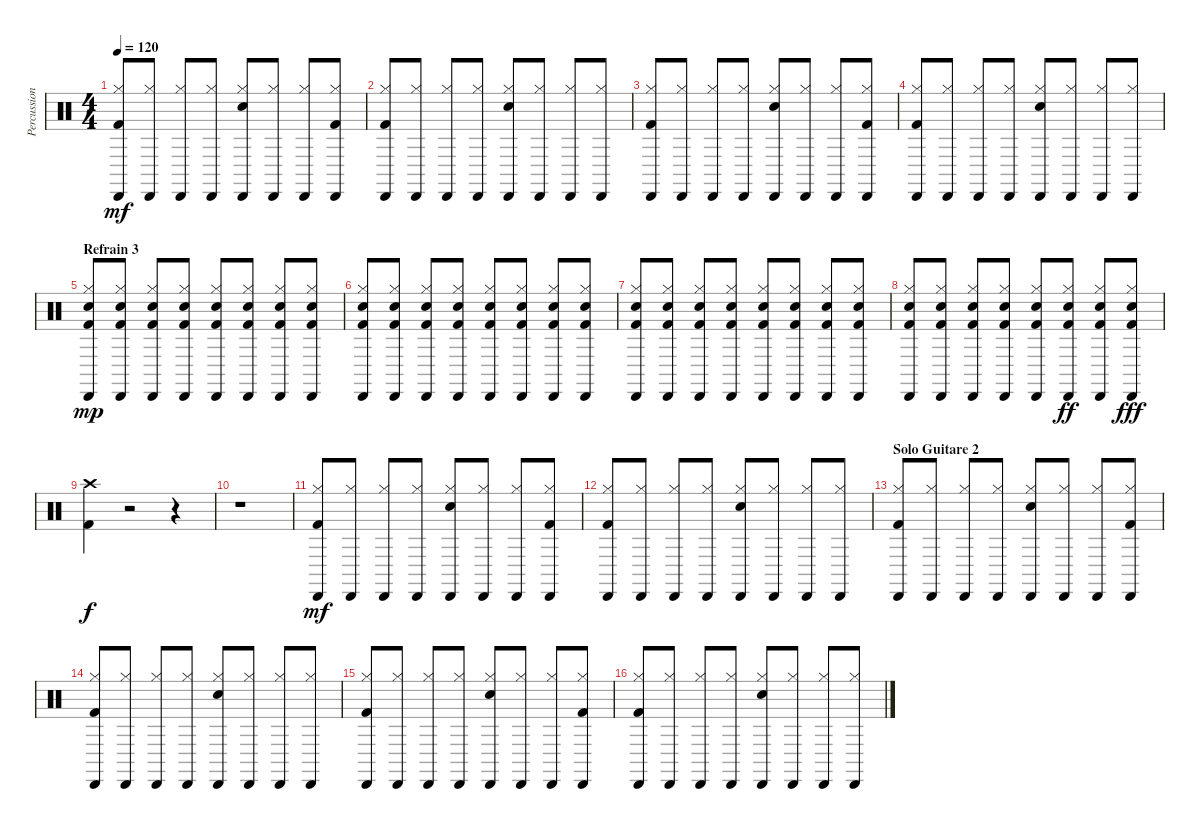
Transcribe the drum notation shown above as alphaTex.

\track ("Percussions" "Percussion") {instrument percussion}
\staff {score}
\articulation defaults
\ts (4 4)
\tempo 120
\clef neutral
\ks c
("Kick (hit) 2" "Cabasa (hit)" "Hi-Hat (closed)").8{dy mf} ("Cabasa (hit)" "Hi-Hat (closed)").8 ("Cabasa (hit)" "Hi-Hat (closed)").8 ("Cabasa (hit)" "Hi-Hat (closed)").8 ("Electric Snare (hit)" "Cabasa (hit)" "Hi-Hat (closed)").8 ("Cabasa (hit)" "Hi-Hat (closed)").8 ("Cabasa (hit)" "Hi-Hat (closed)").8 ("Kick (hit) 2" "Cabasa (hit)" "Hi-Hat (closed)").8 |
("Kick (hit) 2" "Cabasa (hit)" "Hi-Hat (closed)").8 ("Cabasa (hit)" "Hi-Hat (closed)").8 ("Cabasa (hit)" "Hi-Hat (closed)").8 ("Cabasa (hit)" "Hi-Hat (closed)").8 ("Electric Snare (hit)" "Cabasa (hit)" "Hi-Hat (closed)").8 ("Cabasa (hit)" "Hi-Hat (closed)").8 ("Cabasa (hit)" "Hi-Hat (closed)").8 ("Cabasa (hit)" "Hi-Hat (closed)").8 |
("Kick (hit) 2" "Cabasa (hit)" "Hi-Hat (closed)").8 ("Cabasa (hit)" "Hi-Hat (closed)").8 ("Cabasa (hit)" "Hi-Hat (closed)").8 ("Cabasa (hit)" "Hi-Hat (closed)").8 ("Electric Snare (hit)" "Cabasa (hit)" "Hi-Hat (closed)").8 ("Cabasa (hit)" "Hi-Hat (closed)").8 ("Cabasa (hit)" "Hi-Hat (closed)").8 ("Kick (hit) 2" "Cabasa (hit)" "Hi-Hat (closed)").8 |
("Kick (hit) 2" "Cabasa (hit)" "Hi-Hat (closed)").8 ("Cabasa (hit)" "Hi-Hat (closed)").8 ("Cabasa (hit)" "Hi-Hat (closed)").8 ("Cabasa (hit)" "Hi-Hat (closed)").8 ("Electric Snare (hit)" "Cabasa (hit)" "Hi-Hat (closed)").8 ("Cabasa (hit)" "Hi-Hat (closed)").8 ("Cabasa (hit)" "Hi-Hat (closed)").8 ("Cabasa (hit)" "Hi-Hat (closed)").8 |
\section ("" "Refrain 3")
("Electric Snare (hit)" "Cabasa (hit)" "Hi-Hat (closed)" "Kick (hit) 2").8{dy mp} ("Electric Snare (hit)" "Cabasa (hit)" "Hi-Hat (closed)" "Kick (hit) 2").8 ("Electric Snare (hit)" "Cabasa (hit)" "Hi-Hat (closed)" "Kick (hit) 2").8 ("Electric Snare (hit)" "Cabasa (hit)" "Hi-Hat (closed)" "Kick (hit) 2").8 ("Electric Snare (hit)" "Cabasa (hit)" "Hi-Hat (closed)" "Kick (hit) 2").8 ("Electric Snare (hit)" "Cabasa (hit)" "Hi-Hat (closed)" "Kick (hit) 2").8 ("Electric Snare (hit)" "Cabasa (hit)" "Hi-Hat (closed)" "Kick (hit) 2").8 ("Electric Snare (hit)" "Cabasa (hit)" "Hi-Hat (closed)" "Kick (hit) 2").8 |
("Electric Snare (hit)" "Cabasa (hit)" "Hi-Hat (closed)" "Kick (hit) 2").8 ("Electric Snare (hit)" "Cabasa (hit)" "Hi-Hat (closed)" "Kick (hit) 2").8 ("Electric Snare (hit)" "Cabasa (hit)" "Hi-Hat (closed)" "Kick (hit) 2").8 ("Electric Snare (hit)" "Cabasa (hit)" "Hi-Hat (closed)" "Kick (hit) 2").8 ("Electric Snare (hit)" "Cabasa (hit)" "Hi-Hat (closed)" "Kick (hit) 2").8 ("Electric Snare (hit)" "Cabasa (hit)" "Hi-Hat (closed)" "Kick (hit) 2").8 ("Electric Snare (hit)" "Cabasa (hit)" "Hi-Hat (closed)" "Kick (hit) 2").8 ("Electric Snare (hit)" "Cabasa (hit)" "Hi-Hat (closed)" "Kick (hit) 2").8 |
("Electric Snare (hit)" "Cabasa (hit)" "Hi-Hat (closed)" "Kick (hit) 2").8 ("Electric Snare (hit)" "Cabasa (hit)" "Hi-Hat (closed)" "Kick (hit) 2").8 ("Electric Snare (hit)" "Cabasa (hit)" "Hi-Hat (closed)" "Kick (hit) 2").8 ("Electric Snare (hit)" "Cabasa (hit)" "Hi-Hat (closed)" "Kick (hit) 2").8 ("Electric Snare (hit)" "Cabasa (hit)" "Hi-Hat (closed)" "Kick (hit) 2").8 ("Electric Snare (hit)" "Cabasa (hit)" "Hi-Hat (closed)" "Kick (hit) 2").8 ("Electric Snare (hit)" "Cabasa (hit)" "Hi-Hat (closed)" "Kick (hit) 2").8 ("Electric Snare (hit)" "Cabasa (hit)" "Hi-Hat (closed)" "Kick (hit) 2").8 |
("Electric Snare (hit)" "Cabasa (hit)" "Hi-Hat (closed)" "Kick (hit) 2").8 ("Electric Snare (hit)" "Cabasa (hit)" "Hi-Hat (closed)" "Kick (hit) 2").8 ("Electric Snare (hit)" "Cabasa (hit)" "Hi-Hat (closed)" "Kick (hit) 2").8 ("Electric Snare (hit)" "Cabasa (hit)" "Hi-Hat (closed)" "Kick (hit) 2").8 ("Electric Snare (hit)" "Cabasa (hit)" "Hi-Hat (closed)" "Kick (hit) 2").8 ("Electric Snare (hit)" "Cabasa (hit)" "Hi-Hat (closed)" "Kick (hit) 2").8{dy ff} ("Electric Snare (hit)" "Cabasa (hit)" "Hi-Hat (closed)" "Kick (hit) 2").8 ("Electric Snare (hit)" "Cabasa (hit)" "Hi-Hat (closed)" "Kick (hit) 2").8{dy fff} |
("Crash high (hit)" "Kick (hit) 2").4{dy f} r.2 r.4 |
r.1 |
("Kick (hit) 2" "Cabasa (hit)" "Hi-Hat (closed)").8{dy mf} ("Cabasa (hit)" "Hi-Hat (closed)").8 ("Cabasa (hit)" "Hi-Hat (closed)").8 ("Cabasa (hit)" "Hi-Hat (closed)").8 ("Electric Snare (hit)" "Cabasa (hit)" "Hi-Hat (closed)").8 ("Cabasa (hit)" "Hi-Hat (closed)").8 ("Cabasa (hit)" "Hi-Hat (closed)").8 ("Kick (hit) 2" "Cabasa (hit)" "Hi-Hat (closed)").8 |
("Kick (hit) 2" "Cabasa (hit)" "Hi-Hat (closed)").8 ("Cabasa (hit)" "Hi-Hat (closed)").8 ("Cabasa (hit)" "Hi-Hat (closed)").8 ("Cabasa (hit)" "Hi-Hat (closed)").8 ("Electric Snare (hit)" "Cabasa (hit)" "Hi-Hat (closed)").8 ("Cabasa (hit)" "Hi-Hat (closed)").8 ("Cabasa (hit)" "Hi-Hat (closed)").8 ("Cabasa (hit)" "Hi-Hat (closed)").8 |
\section ("" "Solo Guitare 2")
("Kick (hit) 2" "Cabasa (hit)" "Hi-Hat (closed)").8 ("Cabasa (hit)" "Hi-Hat (closed)").8 ("Cabasa (hit)" "Hi-Hat (closed)").8 ("Cabasa (hit)" "Hi-Hat (closed)").8 ("Electric Snare (hit)" "Cabasa (hit)" "Hi-Hat (closed)").8 ("Cabasa (hit)" "Hi-Hat (closed)").8 ("Cabasa (hit)" "Hi-Hat (closed)").8 ("Kick (hit) 2" "Cabasa (hit)" "Hi-Hat (closed)").8 |
("Kick (hit) 2" "Cabasa (hit)" "Hi-Hat (closed)").8 ("Cabasa (hit)" "Hi-Hat (closed)").8 ("Cabasa (hit)" "Hi-Hat (closed)").8 ("Cabasa (hit)" "Hi-Hat (closed)").8 ("Electric Snare (hit)" "Cabasa (hit)" "Hi-Hat (closed)").8 ("Cabasa (hit)" "Hi-Hat (closed)").8 ("Cabasa (hit)" "Hi-Hat (closed)").8 ("Cabasa (hit)" "Hi-Hat (closed)").8 |
("Kick (hit) 2" "Cabasa (hit)" "Hi-Hat (closed)").8 ("Cabasa (hit)" "Hi-Hat (closed)").8 ("Cabasa (hit)" "Hi-Hat (closed)").8 ("Cabasa (hit)" "Hi-Hat (closed)").8 ("Electric Snare (hit)" "Cabasa (hit)" "Hi-Hat (closed)").8 ("Cabasa (hit)" "Hi-Hat (closed)").8 ("Cabasa (hit)" "Hi-Hat (closed)").8 ("Kick (hit) 2" "Cabasa (hit)" "Hi-Hat (closed)").8 |
("Kick (hit) 2" "Cabasa (hit)" "Hi-Hat (closed)").8 ("Cabasa (hit)" "Hi-Hat (closed)").8 ("Cabasa (hit)" "Hi-Hat (closed)").8 ("Cabasa (hit)" "Hi-Hat (closed)").8 ("Electric Snare (hit)" "Cabasa (hit)" "Hi-Hat (closed)").8 ("Cabasa (hit)" "Hi-Hat (closed)").8 ("Cabasa (hit)" "Hi-Hat (closed)").8 ("Cabasa (hit)" "Hi-Hat (closed)").8
